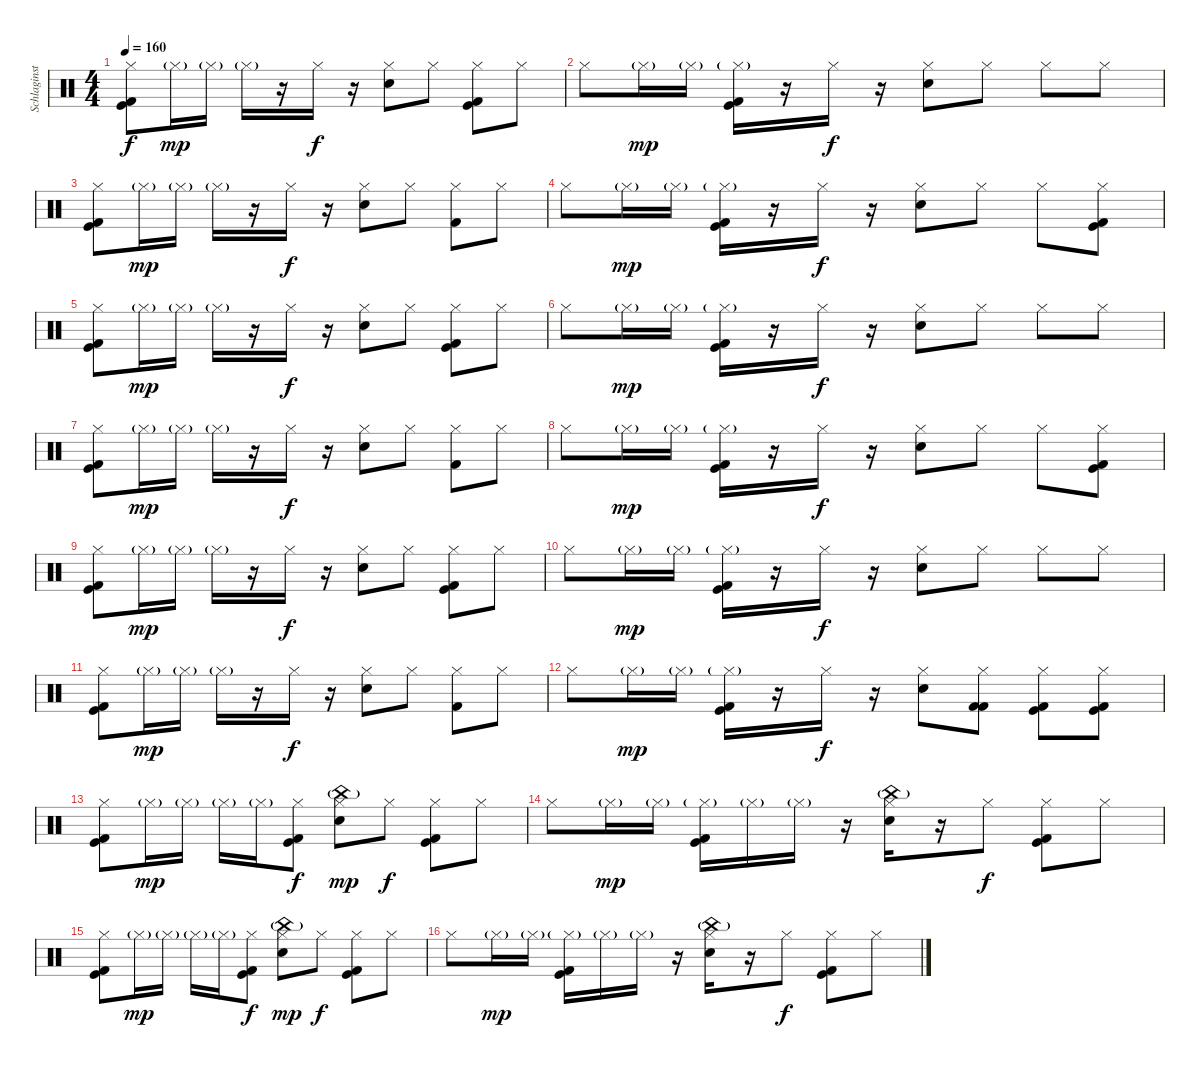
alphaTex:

\track ("Schlaginstrumente - Auswahl" "Schlaginst") {instrument percussion}
\staff {score}
\articulation defaults
\ts (4 4)
\tempo 160
\clef neutral
\ks c
("Hi-Hat (closed)" "Kick (hit)" "Kick (hit) 2").8{dy f} "Hi-Hat (closed)"{g}.16{dy mp} "Hi-Hat (closed)"{g}.16 "Hi-Hat (closed)"{g}.16 r.16 "Hi-Hat (closed)".16{dy f} r.16 ("Hi-Hat (closed)" "Snare (hit) 2").8 "Hi-Hat (closed)".8 ("Hi-Hat (closed)" "Kick (hit)" "Kick (hit) 2").8 "Hi-Hat (closed)".8 |
"Hi-Hat (closed)".8 "Hi-Hat (closed)"{g}.16{dy mp} "Hi-Hat (closed)"{g}.16 ("Hi-Hat (closed)"{g} "Kick (hit)" "Kick (hit) 2").16 r.16 "Hi-Hat (closed)".16{dy f} r.16 ("Hi-Hat (closed)" "Snare (hit) 2").8 "Hi-Hat (closed)".8 "Hi-Hat (closed)".8 "Hi-Hat (closed)".8 |
("Hi-Hat (closed)" "Kick (hit)" "Kick (hit) 2").8 "Hi-Hat (closed)"{g}.16{dy mp} "Hi-Hat (closed)"{g}.16 "Hi-Hat (closed)"{g}.16 r.16 "Hi-Hat (closed)".16{dy f} r.16 ("Hi-Hat (closed)" "Snare (hit) 2").8 "Hi-Hat (closed)".8 ("Hi-Hat (closed)" "Kick (hit) 2").8 "Hi-Hat (closed)".8 |
"Hi-Hat (closed)".8 "Hi-Hat (closed)"{g}.16{dy mp} "Hi-Hat (closed)"{g}.16 ("Hi-Hat (closed)"{g} "Kick (hit)" "Kick (hit) 2").16 r.16 "Hi-Hat (closed)".16{dy f} r.16 ("Hi-Hat (closed)" "Snare (hit) 2").8 "Hi-Hat (closed)".8 "Hi-Hat (closed)".8 ("Hi-Hat (closed)" "Kick (hit)" "Kick (hit) 2").8 |
("Hi-Hat (closed)" "Kick (hit)" "Kick (hit) 2").8 "Hi-Hat (closed)"{g}.16{dy mp} "Hi-Hat (closed)"{g}.16 "Hi-Hat (closed)"{g}.16 r.16 "Hi-Hat (closed)".16{dy f} r.16 ("Hi-Hat (closed)" "Snare (hit) 2").8 "Hi-Hat (closed)".8 ("Hi-Hat (closed)" "Kick (hit)" "Kick (hit) 2").8 "Hi-Hat (closed)".8 |
"Hi-Hat (closed)".8 "Hi-Hat (closed)"{g}.16{dy mp} "Hi-Hat (closed)"{g}.16 ("Hi-Hat (closed)"{g} "Kick (hit)" "Kick (hit) 2").16 r.16 "Hi-Hat (closed)".16{dy f} r.16 ("Hi-Hat (closed)" "Snare (hit) 2").8 "Hi-Hat (closed)".8 "Hi-Hat (closed)".8 "Hi-Hat (closed)".8 |
("Hi-Hat (closed)" "Kick (hit)" "Kick (hit) 2").8 "Hi-Hat (closed)"{g}.16{dy mp} "Hi-Hat (closed)"{g}.16 "Hi-Hat (closed)"{g}.16 r.16 "Hi-Hat (closed)".16{dy f} r.16 ("Hi-Hat (closed)" "Snare (hit) 2").8 "Hi-Hat (closed)".8 ("Hi-Hat (closed)" "Kick (hit) 2").8 "Hi-Hat (closed)".8 |
"Hi-Hat (closed)".8 "Hi-Hat (closed)"{g}.16{dy mp} "Hi-Hat (closed)"{g}.16 ("Hi-Hat (closed)"{g} "Kick (hit)" "Kick (hit) 2").16 r.16 "Hi-Hat (closed)".16{dy f} r.16 ("Hi-Hat (closed)" "Snare (hit) 2").8 "Hi-Hat (closed)".8 "Hi-Hat (closed)".8 ("Hi-Hat (closed)" "Kick (hit)" "Kick (hit) 2").8 |
("Hi-Hat (closed)" "Kick (hit)" "Kick (hit) 2").8 "Hi-Hat (closed)"{g}.16{dy mp} "Hi-Hat (closed)"{g}.16 "Hi-Hat (closed)"{g}.16 r.16 "Hi-Hat (closed)".16{dy f} r.16 ("Hi-Hat (closed)" "Snare (hit) 2").8 "Hi-Hat (closed)".8 ("Hi-Hat (closed)" "Kick (hit)" "Kick (hit) 2").8 "Hi-Hat (closed)".8 |
"Hi-Hat (closed)".8 "Hi-Hat (closed)"{g}.16{dy mp} "Hi-Hat (closed)"{g}.16 ("Hi-Hat (closed)"{g} "Kick (hit)" "Kick (hit) 2").16 r.16 "Hi-Hat (closed)".16{dy f} r.16 ("Hi-Hat (closed)" "Snare (hit) 2").8 "Hi-Hat (closed)".8 "Hi-Hat (closed)".8 "Hi-Hat (closed)".8 |
("Hi-Hat (closed)" "Kick (hit)" "Kick (hit) 2").8 "Hi-Hat (closed)"{g}.16{dy mp} "Hi-Hat (closed)"{g}.16 "Hi-Hat (closed)"{g}.16 r.16 "Hi-Hat (closed)".16{dy f} r.16 ("Hi-Hat (closed)" "Snare (hit) 2").8 "Hi-Hat (closed)".8 ("Hi-Hat (closed)" "Kick (hit) 2").8 "Hi-Hat (closed)".8 |
"Hi-Hat (closed)".8 "Hi-Hat (closed)"{g}.16{dy mp} "Hi-Hat (closed)"{g}.16 ("Hi-Hat (closed)"{g} "Kick (hit)" "Kick (hit) 2").16 r.16 "Hi-Hat (closed)".16{dy f} r.16 ("Hi-Hat (closed)" "Snare (hit) 2").8 ("Hi-Hat (closed)" "Kick (hit) 2" "Kick (hit) 2").8 ("Hi-Hat (closed)" "Kick (hit)" "Kick (hit) 2").8 ("Hi-Hat (closed)" "Kick (hit)" "Kick (hit) 2").8 |
("Hi-Hat (closed)" "Kick (hit)" "Kick (hit) 2").8 "Hi-Hat (closed)"{g}.16{dy mp} "Hi-Hat (closed)"{g}.16 "Hi-Hat (closed)"{g}.16 "Hi-Hat (closed)"{g}.16 ("Hi-Hat (closed)" "Kick (hit)" "Kick (hit) 2").8{dy f} ("Hi-Hat (closed)" "China (hit)"{g} "Snare (hit) 2").8{dy mp} "Hi-Hat (closed)".8{dy f} ("Hi-Hat (closed)" "Kick (hit)" "Kick (hit) 2").8 "Hi-Hat (closed)".8 |
"Hi-Hat (closed)".8 "Hi-Hat (closed)"{g}.16{dy mp} "Hi-Hat (closed)"{g}.16 ("Hi-Hat (closed)"{g} "Kick (hit)" "Kick (hit) 2").16 "Hi-Hat (closed)"{g}.16 "Hi-Hat (closed)"{g}.16 r.16 ("Hi-Hat (closed)" "China (hit)"{g} "Snare (hit) 2").16 r.16 "Hi-Hat (closed)".8{dy f} ("Hi-Hat (closed)" "Kick (hit)" "Kick (hit) 2").8 "Hi-Hat (closed)".8 |
("Hi-Hat (closed)" "Kick (hit)" "Kick (hit) 2").8 "Hi-Hat (closed)"{g}.16{dy mp} "Hi-Hat (closed)"{g}.16 "Hi-Hat (closed)"{g}.16 "Hi-Hat (closed)"{g}.16 ("Hi-Hat (closed)" "Kick (hit)" "Kick (hit) 2").8{dy f} ("Hi-Hat (closed)" "China (hit)"{g} "Snare (hit) 2").8{dy mp} "Hi-Hat (closed)".8{dy f} ("Hi-Hat (closed)" "Kick (hit)" "Kick (hit) 2").8 "Hi-Hat (closed)".8 |
"Hi-Hat (closed)".8 "Hi-Hat (closed)"{g}.16{dy mp} "Hi-Hat (closed)"{g}.16 ("Hi-Hat (closed)"{g} "Kick (hit)" "Kick (hit) 2").16 "Hi-Hat (closed)"{g}.16 "Hi-Hat (closed)"{g}.16 r.16 ("Hi-Hat (closed)" "China (hit)"{g} "Snare (hit) 2").16 r.16 "Hi-Hat (closed)".8{dy f} ("Hi-Hat (closed)" "Kick (hit)" "Kick (hit) 2").8 "Hi-Hat (closed)".8
